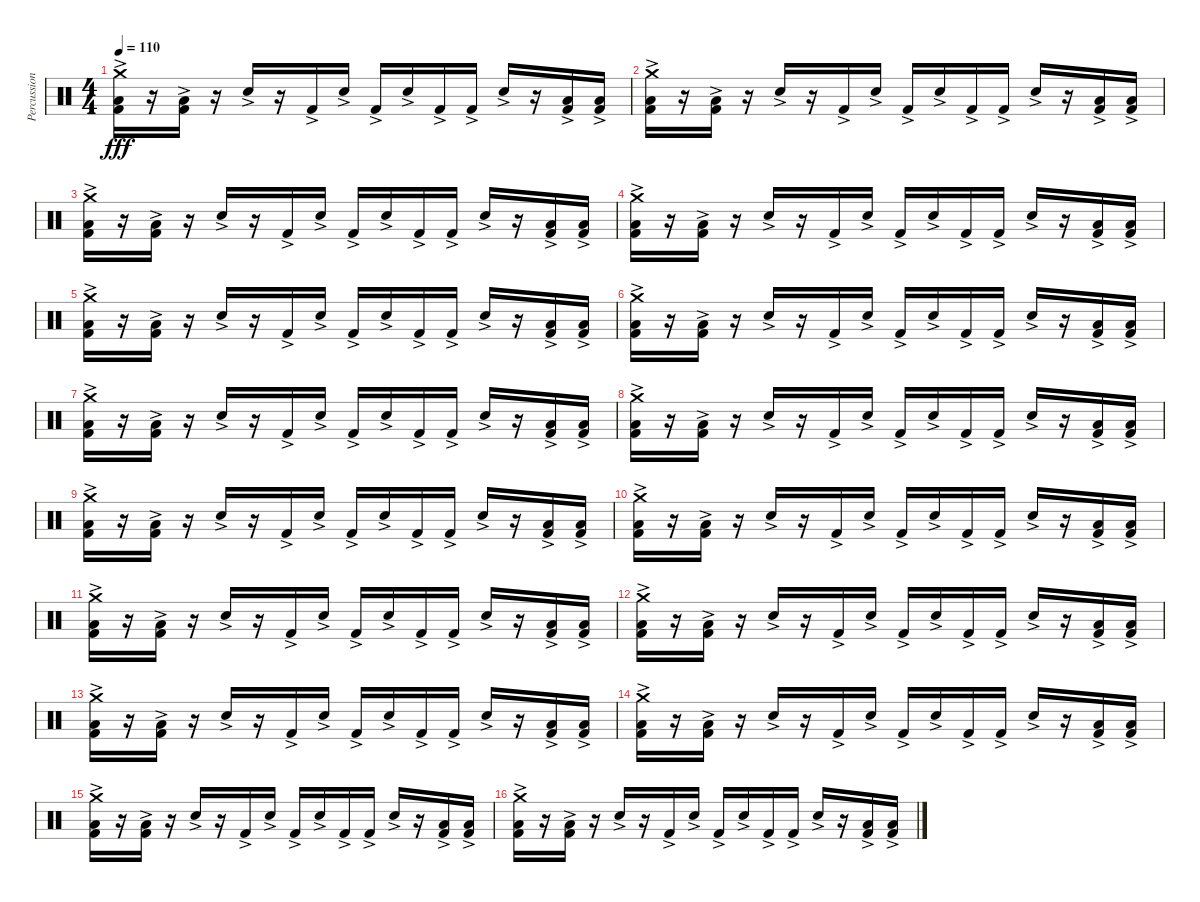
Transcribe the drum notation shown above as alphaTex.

\track ("Percussion" "Percussion") {instrument percussion}
\staff {score}
\articulation defaults
\ts (4 4)
\tempo 110
\clef neutral
\ks c
("Crash medium (hit)" "Kick (hit) 2"{ac} "Low Floor Tom (hit)").16{dy fff} r.16 ("Kick (hit) 2"{ac} "Low Floor Tom (hit)").16 r.16 "Snare (hit) 2"{ac}.16 r.16 "Kick (hit) 2"{ac}.16 "Snare (hit) 2"{ac}.16 "Kick (hit) 2"{ac}.16 "Snare (hit) 2"{ac}.16 "Kick (hit) 2"{ac}.16 "Kick (hit) 2"{ac}.16 "Snare (hit) 2"{ac}.16 r.16 ("Kick (hit) 2"{ac} "Low Floor Tom (hit)").16 ("Kick (hit) 2"{ac} "Low Floor Tom (hit)").16 |
("Crash medium (hit)" "Kick (hit) 2"{ac} "Low Floor Tom (hit)").16 r.16 ("Kick (hit) 2"{ac} "Low Floor Tom (hit)").16 r.16 "Snare (hit) 2"{ac}.16 r.16 "Kick (hit) 2"{ac}.16 "Snare (hit) 2"{ac}.16 "Kick (hit) 2"{ac}.16 "Snare (hit) 2"{ac}.16 "Kick (hit) 2"{ac}.16 "Kick (hit) 2"{ac}.16 "Snare (hit) 2"{ac}.16 r.16 ("Kick (hit) 2"{ac} "Low Floor Tom (hit)").16 ("Kick (hit) 2"{ac} "Low Floor Tom (hit)").16 |
("Crash medium (hit)" "Kick (hit) 2"{ac} "Low Floor Tom (hit)").16 r.16 ("Kick (hit) 2"{ac} "Low Floor Tom (hit)").16 r.16 "Snare (hit) 2"{ac}.16 r.16 "Kick (hit) 2"{ac}.16 "Snare (hit) 2"{ac}.16 "Kick (hit) 2"{ac}.16 "Snare (hit) 2"{ac}.16 "Kick (hit) 2"{ac}.16 "Kick (hit) 2"{ac}.16 "Snare (hit) 2"{ac}.16 r.16 ("Kick (hit) 2"{ac} "Low Floor Tom (hit)").16 ("Kick (hit) 2"{ac} "Low Floor Tom (hit)").16 |
("Crash medium (hit)" "Kick (hit) 2"{ac} "Low Floor Tom (hit)").16 r.16 ("Kick (hit) 2"{ac} "Low Floor Tom (hit)").16 r.16 "Snare (hit) 2"{ac}.16 r.16 "Kick (hit) 2"{ac}.16 "Snare (hit) 2"{ac}.16 "Kick (hit) 2"{ac}.16 "Snare (hit) 2"{ac}.16 "Kick (hit) 2"{ac}.16 "Kick (hit) 2"{ac}.16 "Snare (hit) 2"{ac}.16 r.16 ("Kick (hit) 2"{ac} "Low Floor Tom (hit)").16 ("Kick (hit) 2"{ac} "Low Floor Tom (hit)").16 |
("Crash medium (hit)" "Kick (hit) 2"{ac} "Low Floor Tom (hit)").16 r.16 ("Kick (hit) 2"{ac} "Low Floor Tom (hit)").16 r.16 "Snare (hit) 2"{ac}.16 r.16 "Kick (hit) 2"{ac}.16 "Snare (hit) 2"{ac}.16 "Kick (hit) 2"{ac}.16 "Snare (hit) 2"{ac}.16 "Kick (hit) 2"{ac}.16 "Kick (hit) 2"{ac}.16 "Snare (hit) 2"{ac}.16 r.16 ("Kick (hit) 2"{ac} "Low Floor Tom (hit)").16 ("Kick (hit) 2"{ac} "Low Floor Tom (hit)").16 |
("Crash medium (hit)" "Kick (hit) 2"{ac} "Low Floor Tom (hit)").16 r.16 ("Kick (hit) 2"{ac} "Low Floor Tom (hit)").16 r.16 "Snare (hit) 2"{ac}.16 r.16 "Kick (hit) 2"{ac}.16 "Snare (hit) 2"{ac}.16 "Kick (hit) 2"{ac}.16 "Snare (hit) 2"{ac}.16 "Kick (hit) 2"{ac}.16 "Kick (hit) 2"{ac}.16 "Snare (hit) 2"{ac}.16 r.16 ("Kick (hit) 2"{ac} "Low Floor Tom (hit)").16 ("Kick (hit) 2"{ac} "Low Floor Tom (hit)").16 |
("Crash medium (hit)" "Kick (hit) 2"{ac} "Low Floor Tom (hit)").16 r.16 ("Kick (hit) 2"{ac} "Low Floor Tom (hit)").16 r.16 "Snare (hit) 2"{ac}.16 r.16 "Kick (hit) 2"{ac}.16 "Snare (hit) 2"{ac}.16 "Kick (hit) 2"{ac}.16 "Snare (hit) 2"{ac}.16 "Kick (hit) 2"{ac}.16 "Kick (hit) 2"{ac}.16 "Snare (hit) 2"{ac}.16 r.16 ("Kick (hit) 2"{ac} "Low Floor Tom (hit)").16 ("Kick (hit) 2"{ac} "Low Floor Tom (hit)").16 |
("Crash medium (hit)" "Kick (hit) 2"{ac} "Low Floor Tom (hit)").16 r.16 ("Kick (hit) 2"{ac} "Low Floor Tom (hit)").16 r.16 "Snare (hit) 2"{ac}.16 r.16 "Kick (hit) 2"{ac}.16 "Snare (hit) 2"{ac}.16 "Kick (hit) 2"{ac}.16 "Snare (hit) 2"{ac}.16 "Kick (hit) 2"{ac}.16 "Kick (hit) 2"{ac}.16 "Snare (hit) 2"{ac}.16 r.16 ("Kick (hit) 2"{ac} "Low Floor Tom (hit)").16 ("Kick (hit) 2"{ac} "Low Floor Tom (hit)").16 |
("Crash medium (hit)" "Kick (hit) 2"{ac} "Low Floor Tom (hit)").16 r.16 ("Kick (hit) 2"{ac} "Low Floor Tom (hit)").16 r.16 "Snare (hit) 2"{ac}.16 r.16 "Kick (hit) 2"{ac}.16 "Snare (hit) 2"{ac}.16 "Kick (hit) 2"{ac}.16 "Snare (hit) 2"{ac}.16 "Kick (hit) 2"{ac}.16 "Kick (hit) 2"{ac}.16 "Snare (hit) 2"{ac}.16 r.16 ("Kick (hit) 2"{ac} "Low Floor Tom (hit)").16 ("Kick (hit) 2"{ac} "Low Floor Tom (hit)").16 |
("Crash medium (hit)" "Kick (hit) 2"{ac} "Low Floor Tom (hit)").16 r.16 ("Kick (hit) 2"{ac} "Low Floor Tom (hit)").16 r.16 "Snare (hit) 2"{ac}.16 r.16 "Kick (hit) 2"{ac}.16 "Snare (hit) 2"{ac}.16 "Kick (hit) 2"{ac}.16 "Snare (hit) 2"{ac}.16 "Kick (hit) 2"{ac}.16 "Kick (hit) 2"{ac}.16 "Snare (hit) 2"{ac}.16 r.16 ("Kick (hit) 2"{ac} "Low Floor Tom (hit)").16 ("Kick (hit) 2"{ac} "Low Floor Tom (hit)").16 |
("Crash medium (hit)" "Kick (hit) 2"{ac} "Low Floor Tom (hit)").16 r.16 ("Kick (hit) 2"{ac} "Low Floor Tom (hit)").16 r.16 "Snare (hit) 2"{ac}.16 r.16 "Kick (hit) 2"{ac}.16 "Snare (hit) 2"{ac}.16 "Kick (hit) 2"{ac}.16 "Snare (hit) 2"{ac}.16 "Kick (hit) 2"{ac}.16 "Kick (hit) 2"{ac}.16 "Snare (hit) 2"{ac}.16 r.16 ("Kick (hit) 2"{ac} "Low Floor Tom (hit)").16 ("Kick (hit) 2"{ac} "Low Floor Tom (hit)").16 |
("Crash medium (hit)" "Kick (hit) 2"{ac} "Low Floor Tom (hit)").16 r.16 ("Kick (hit) 2"{ac} "Low Floor Tom (hit)").16 r.16 "Snare (hit) 2"{ac}.16 r.16 "Kick (hit) 2"{ac}.16 "Snare (hit) 2"{ac}.16 "Kick (hit) 2"{ac}.16 "Snare (hit) 2"{ac}.16 "Kick (hit) 2"{ac}.16 "Kick (hit) 2"{ac}.16 "Snare (hit) 2"{ac}.16 r.16 ("Kick (hit) 2"{ac} "Low Floor Tom (hit)").16 ("Kick (hit) 2"{ac} "Low Floor Tom (hit)").16 |
("Crash medium (hit)" "Kick (hit) 2"{ac} "Low Floor Tom (hit)").16 r.16 ("Kick (hit) 2"{ac} "Low Floor Tom (hit)").16 r.16 "Snare (hit) 2"{ac}.16 r.16 "Kick (hit) 2"{ac}.16 "Snare (hit) 2"{ac}.16 "Kick (hit) 2"{ac}.16 "Snare (hit) 2"{ac}.16 "Kick (hit) 2"{ac}.16 "Kick (hit) 2"{ac}.16 "Snare (hit) 2"{ac}.16 r.16 ("Kick (hit) 2"{ac} "Low Floor Tom (hit)").16 ("Kick (hit) 2"{ac} "Low Floor Tom (hit)").16 |
("Crash medium (hit)" "Kick (hit) 2"{ac} "Low Floor Tom (hit)").16 r.16 ("Kick (hit) 2"{ac} "Low Floor Tom (hit)").16 r.16 "Snare (hit) 2"{ac}.16 r.16 "Kick (hit) 2"{ac}.16 "Snare (hit) 2"{ac}.16 "Kick (hit) 2"{ac}.16 "Snare (hit) 2"{ac}.16 "Kick (hit) 2"{ac}.16 "Kick (hit) 2"{ac}.16 "Snare (hit) 2"{ac}.16 r.16 ("Kick (hit) 2"{ac} "Low Floor Tom (hit)").16 ("Kick (hit) 2"{ac} "Low Floor Tom (hit)").16 |
("Crash medium (hit)" "Kick (hit) 2"{ac} "Low Floor Tom (hit)").16 r.16 ("Kick (hit) 2"{ac} "Low Floor Tom (hit)").16 r.16 "Snare (hit) 2"{ac}.16 r.16 "Kick (hit) 2"{ac}.16 "Snare (hit) 2"{ac}.16 "Kick (hit) 2"{ac}.16 "Snare (hit) 2"{ac}.16 "Kick (hit) 2"{ac}.16 "Kick (hit) 2"{ac}.16 "Snare (hit) 2"{ac}.16 r.16 ("Kick (hit) 2"{ac} "Low Floor Tom (hit)").16 ("Kick (hit) 2"{ac} "Low Floor Tom (hit)").16 |
("Crash medium (hit)" "Kick (hit) 2"{ac} "Low Floor Tom (hit)").16 r.16 ("Kick (hit) 2"{ac} "Low Floor Tom (hit)").16 r.16 "Snare (hit) 2"{ac}.16 r.16 "Kick (hit) 2"{ac}.16 "Snare (hit) 2"{ac}.16 "Kick (hit) 2"{ac}.16 "Snare (hit) 2"{ac}.16 "Kick (hit) 2"{ac}.16 "Kick (hit) 2"{ac}.16 "Snare (hit) 2"{ac}.16 r.16 ("Kick (hit) 2"{ac} "Low Floor Tom (hit)").16 ("Kick (hit) 2"{ac} "Low Floor Tom (hit)").16
